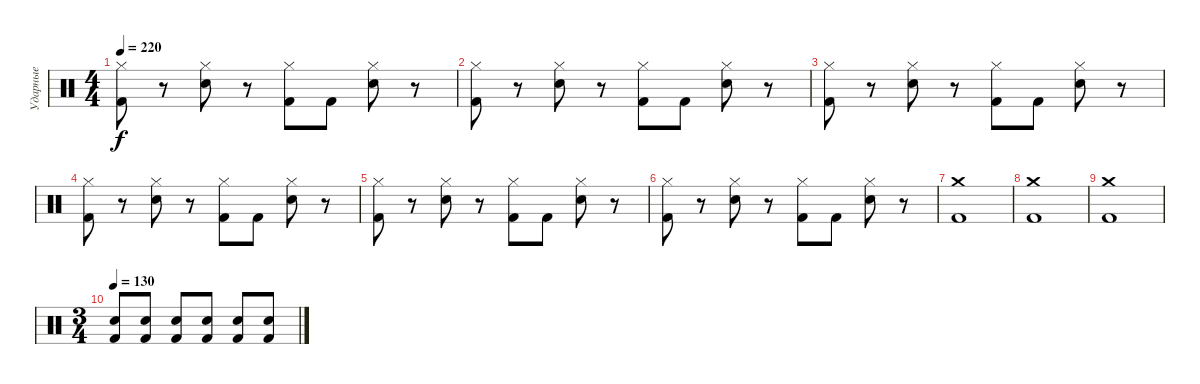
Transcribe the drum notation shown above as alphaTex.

\track ("Ударные" "Ударные") {instrument percussion}
\staff {score}
\articulation defaults
\ts (4 4)
\tempo 220
\clef neutral
\ks c
("Hi-Hat (closed)" "Kick (hit) 2").8{dy f} r.8 ("Hi-Hat (closed)" "Electric Snare (hit)").8 r.8 ("Hi-Hat (closed)" "Kick (hit) 2").8 "Kick (hit) 2".8 ("Hi-Hat (closed)" "Electric Snare (hit)").8 r.8 |
("Hi-Hat (closed)" "Kick (hit) 2").8 r.8 ("Hi-Hat (closed)" "Electric Snare (hit)").8 r.8 ("Hi-Hat (closed)" "Kick (hit) 2").8 "Kick (hit) 2".8 ("Hi-Hat (closed)" "Electric Snare (hit)").8 r.8 |
("Hi-Hat (closed)" "Kick (hit) 2").8 r.8 ("Hi-Hat (closed)" "Electric Snare (hit)").8 r.8 ("Hi-Hat (closed)" "Kick (hit) 2").8 "Kick (hit) 2".8 ("Hi-Hat (closed)" "Electric Snare (hit)").8 r.8 |
("Hi-Hat (closed)" "Kick (hit) 2").8 r.8 ("Hi-Hat (closed)" "Electric Snare (hit)").8 r.8 ("Hi-Hat (closed)" "Kick (hit) 2").8 "Kick (hit) 2".8 ("Hi-Hat (closed)" "Electric Snare (hit)").8 r.8 |
("Hi-Hat (closed)" "Kick (hit) 2").8 r.8 ("Hi-Hat (closed)" "Electric Snare (hit)").8 r.8 ("Hi-Hat (closed)" "Kick (hit) 2").8 "Kick (hit) 2".8 ("Hi-Hat (closed)" "Electric Snare (hit)").8 r.8 |
("Hi-Hat (closed)" "Kick (hit) 2").8 r.8 ("Hi-Hat (closed)" "Electric Snare (hit)").8 r.8 ("Hi-Hat (closed)" "Kick (hit) 2").8 "Kick (hit) 2".8 ("Hi-Hat (closed)" "Electric Snare (hit)").8 r.8 |
("Crash medium (hit)" "Kick (hit) 2").1 |
("Crash medium (hit)" "Kick (hit) 2").1 |
("Crash medium (hit)" "Kick (hit) 2").1 |
\ts (3 4)
\tempo 130
("Electric Snare (hit)" "Kick (hit) 2").8 ("Electric Snare (hit)" "Kick (hit) 2").8 ("Electric Snare (hit)" "Kick (hit) 2").8 ("Electric Snare (hit)" "Kick (hit) 2").8 ("Electric Snare (hit)" "Kick (hit) 2").8 ("Electric Snare (hit)" "Kick (hit) 2").8
